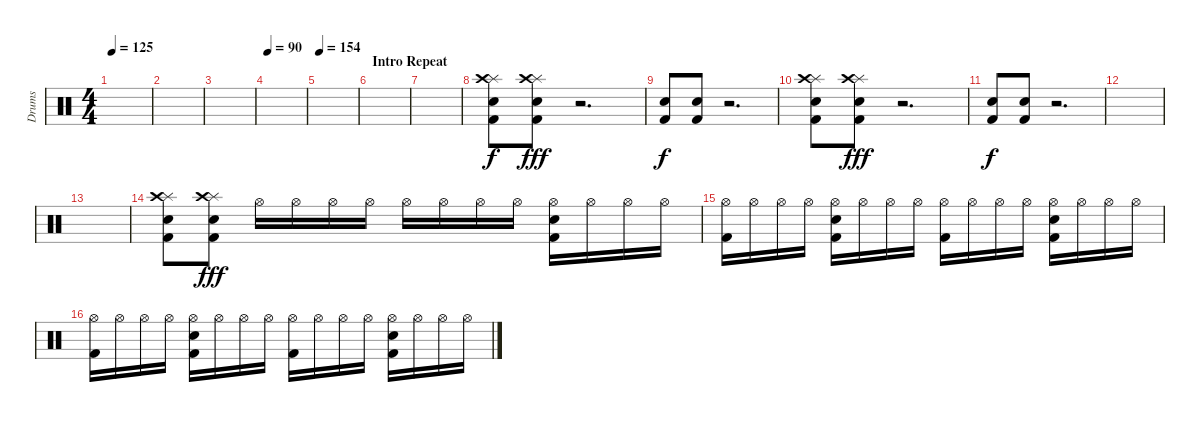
\track ("Drums" "Drums") {instrument percussion}
\staff {score}
\articulation defaults
\ts (4 4)
\tempo 125
\clef neutral
\ks c
|
|
|
\tempo 90
|
\tempo 154
|
\section ("" "Intro Repeat")
|
|
("Splash (hit)" "Crash high (hit)" "Snare (hit) 2" "Kick (hit) 2").8{volume 16} ("Splash (hit)" "Crash high (hit)" "Snare (hit) 2" "Kick (hit) 2").8{dy fff} r.2{d} |
("Snare (hit) 2" "Kick (hit) 2").8{dy f} ("Snare (hit) 2" "Kick (hit) 2").8 r.2{d} |
("Splash (hit)" "Crash high (hit)" "Snare (hit) 2" "Kick (hit) 2").8 ("Splash (hit)" "Crash high (hit)" "Snare (hit) 2" "Kick (hit) 2").8{dy fff} r.2{d} |
("Snare (hit) 2" "Kick (hit) 2").8{dy f} ("Snare (hit) 2" "Kick (hit) 2").8 r.2{d} |
|
|
("Splash (hit)" "Crash high (hit)" "Snare (hit) 2" "Kick (hit) 2").8{volume 14} ("Splash (hit)" "Crash high (hit)" "Snare (hit) 2" "Kick (hit) 2").8{dy fff} "Hi-Hat (open)".16 "Hi-Hat (open)".16 "Hi-Hat (open)".16 "Hi-Hat (open)".16 "Hi-Hat (open)".16 "Hi-Hat (open)".16 "Hi-Hat (open)".16 "Hi-Hat (open)".16 ("Hi-Hat (open)" "Snare (hit) 2" "Kick (hit) 2").16 "Hi-Hat (open)".16 "Hi-Hat (open)".16 "Hi-Hat (open)".16 |
("Hi-Hat (open)" "Kick (hit) 2").16 "Hi-Hat (open)".16 "Hi-Hat (open)".16 "Hi-Hat (open)".16 ("Hi-Hat (open)" "Snare (hit) 2" "Kick (hit) 2").16 "Hi-Hat (open)".16 "Hi-Hat (open)".16 "Hi-Hat (open)".16 ("Hi-Hat (open)" "Kick (hit) 2").16 "Hi-Hat (open)".16 "Hi-Hat (open)".16 "Hi-Hat (open)".16 ("Hi-Hat (open)" "Snare (hit) 2" "Kick (hit) 2").16 "Hi-Hat (open)".16 "Hi-Hat (open)".16 "Hi-Hat (open)".16 |
("Hi-Hat (open)" "Kick (hit) 2").16 "Hi-Hat (open)".16 "Hi-Hat (open)".16 "Hi-Hat (open)".16 ("Hi-Hat (open)" "Snare (hit) 2" "Kick (hit) 2").16 "Hi-Hat (open)".16 "Hi-Hat (open)".16 "Hi-Hat (open)".16 ("Hi-Hat (open)" "Kick (hit) 2").16 "Hi-Hat (open)".16 "Hi-Hat (open)".16 "Hi-Hat (open)".16 ("Hi-Hat (open)" "Snare (hit) 2" "Kick (hit) 2").16 "Hi-Hat (open)".16 "Hi-Hat (open)".16 "Hi-Hat (open)".16
